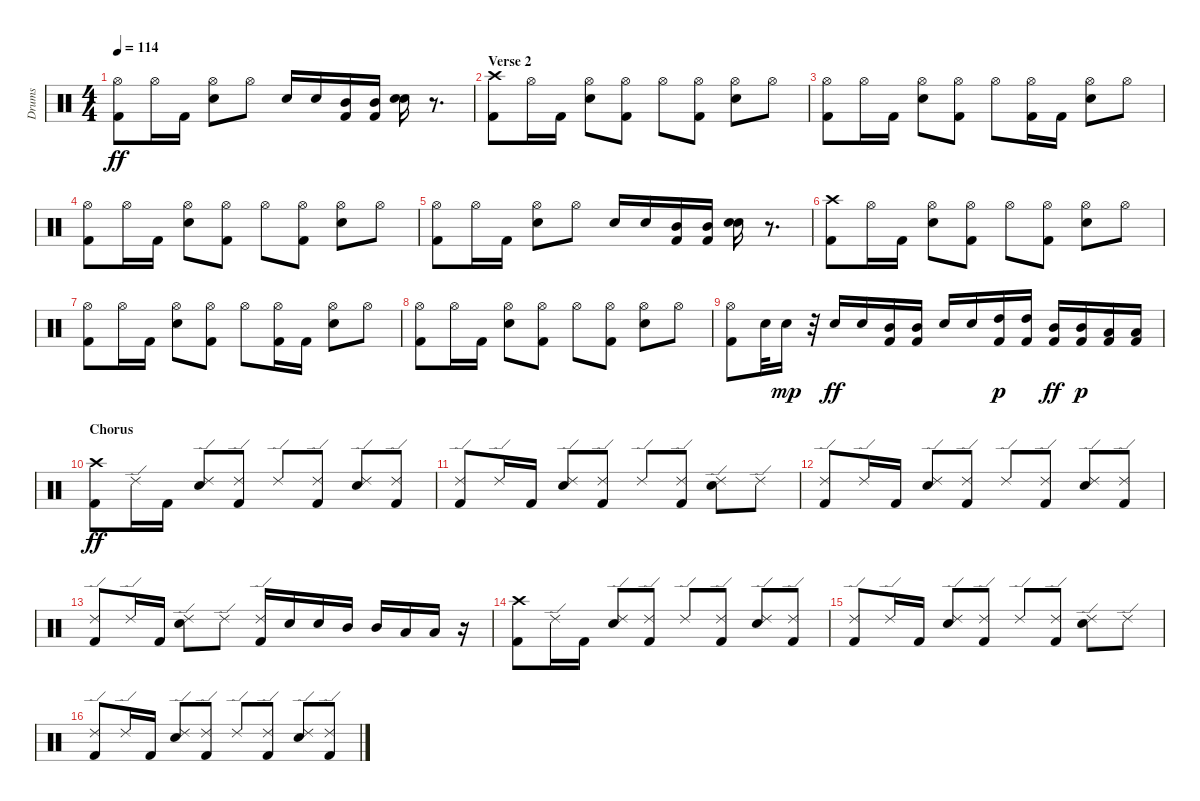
\track ("Drums               " "Drums     ") {instrument percussion}
\staff {score}
\articulation defaults
\ts (4 4)
\tempo 114
\clef neutral
\ks c
("Kick (hit) 2" "Hi-Hat (open)").8{dy ff} "Hi-Hat (open)".16 "Kick (hit) 2".16 ("Hi-Hat (open)" "Electric Snare (hit)").8 "Hi-Hat (open)".8 "Electric Snare (hit)".16 "Electric Snare (hit)".16 ("Kick (hit) 2" "Mid Tom (hit)").16 ("Kick (hit) 2" "Mid Tom (hit)").16 ("Metronome (bell)" "Electric Snare (hit)").16 r.8{d} |
\section ("" "Verse 2")
("Kick (hit) 2" "Crash high (hit)").8 "Hi-Hat (open)".16 "Kick (hit) 2".16 ("Hi-Hat (open)" "Electric Snare (hit)").8 ("Kick (hit) 2" "Hi-Hat (open)").8 "Hi-Hat (open)".8 ("Kick (hit) 2" "Hi-Hat (open)").8 ("Hi-Hat (open)" "Electric Snare (hit)").8 "Hi-Hat (open)".8 |
("Kick (hit) 2" "Hi-Hat (open)").8 "Hi-Hat (open)".16 "Kick (hit) 2".16 ("Hi-Hat (open)" "Electric Snare (hit)").8 ("Kick (hit) 2" "Hi-Hat (open)").8 "Hi-Hat (open)".8 ("Kick (hit) 2" "Hi-Hat (open)").16 "Kick (hit) 2".16 ("Hi-Hat (open)" "Electric Snare (hit)").8 "Hi-Hat (open)".8 |
("Kick (hit) 2" "Hi-Hat (open)").8 "Hi-Hat (open)".16 "Kick (hit) 2".16 ("Hi-Hat (open)" "Electric Snare (hit)").8 ("Kick (hit) 2" "Hi-Hat (open)").8 "Hi-Hat (open)".8 ("Kick (hit) 2" "Hi-Hat (open)").8 ("Hi-Hat (open)" "Electric Snare (hit)").8 "Hi-Hat (open)".8 |
("Kick (hit) 2" "Hi-Hat (open)").8 "Hi-Hat (open)".16 "Kick (hit) 2".16 ("Hi-Hat (open)" "Electric Snare (hit)").8 "Hi-Hat (open)".8 "Electric Snare (hit)".16 "Electric Snare (hit)".16 ("Kick (hit) 2" "Mid Tom (hit)").16 ("Kick (hit) 2" "Mid Tom (hit)").16 ("Metronome (bell)" "Electric Snare (hit)").16 r.8{d} |
("Kick (hit) 2" "Crash high (hit)").8 "Hi-Hat (open)".16 "Kick (hit) 2".16 ("Hi-Hat (open)" "Electric Snare (hit)").8 ("Kick (hit) 2" "Hi-Hat (open)").8 "Hi-Hat (open)".8 ("Kick (hit) 2" "Hi-Hat (open)").8 ("Hi-Hat (open)" "Electric Snare (hit)").8 "Hi-Hat (open)".8 |
("Kick (hit) 2" "Hi-Hat (open)").8 "Hi-Hat (open)".16 "Kick (hit) 2".16 ("Hi-Hat (open)" "Electric Snare (hit)").8 ("Kick (hit) 2" "Hi-Hat (open)").8 "Hi-Hat (open)".8 ("Kick (hit) 2" "Hi-Hat (open)").16 "Kick (hit) 2".16 ("Hi-Hat (open)" "Electric Snare (hit)").8 "Hi-Hat (open)".8 |
("Kick (hit) 2" "Hi-Hat (open)").8 "Hi-Hat (open)".16 "Kick (hit) 2".16 ("Hi-Hat (open)" "Electric Snare (hit)").8 ("Kick (hit) 2" "Hi-Hat (open)").8 "Hi-Hat (open)".8 ("Kick (hit) 2" "Hi-Hat (open)").8 ("Hi-Hat (open)" "Electric Snare (hit)").8 "Hi-Hat (open)".8 |
("Kick (hit) 2" "Hi-Hat (open)").8 "Electric Snare (hit)".32 "Metronome (bell)".16{dy mp} r.32 "Electric Snare (hit)".16{dy ff} "Electric Snare (hit)".16 ("Kick (hit) 2" "Mid Tom (hit)").16 ("Kick (hit) 2" "Mid Tom (hit)").16 "Electric Snare (hit)".16 "Electric Snare (hit)".16 ("High Tom (hit)" "Kick (hit) 2").16{dy p} ("High Tom (hit)" "Kick (hit) 2").16 ("Kick (hit) 2" "Mid Tom (hit)").16{dy ff} ("Mid Tom (hit)" "Kick (hit) 2").16{dy p} ("Low Tom (hit)" "Kick (hit) 2").16 ("Low Tom (hit)" "Kick (hit) 2").16 |
\section ("" "Chorus")
("Kick (hit) 2" "Crash high (hit)").8{dy ff} "Ride (edge) 2".16 "Kick (hit) 2".16 ("Electric Snare (hit)" "Ride (edge) 2").8 ("Kick (hit) 2" "Ride (edge) 2").8 "Ride (edge) 2".8 ("Kick (hit) 2" "Ride (edge) 2").8 ("Electric Snare (hit)" "Ride (edge) 2").8 ("Kick (hit) 2" "Ride (edge) 2").8 |
("Kick (hit) 2" "Ride (edge) 2").8 "Ride (edge) 2".16 "Kick (hit) 2".16 ("Electric Snare (hit)" "Ride (edge) 2").8 ("Kick (hit) 2" "Ride (edge) 2").8 "Ride (edge) 2".8 ("Kick (hit) 2" "Ride (edge) 2").8 ("Electric Snare (hit)" "Ride (edge) 2").8 "Ride (edge) 2".8 |
("Kick (hit) 2" "Ride (edge) 2").8 "Ride (edge) 2".16 "Kick (hit) 2".16 ("Electric Snare (hit)" "Ride (edge) 2").8 ("Kick (hit) 2" "Ride (edge) 2").8 "Ride (edge) 2".8 ("Kick (hit) 2" "Ride (edge) 2").8 ("Electric Snare (hit)" "Ride (edge) 2").8 ("Kick (hit) 2" "Ride (edge) 2").8 |
("Kick (hit) 2" "Ride (edge) 2").8 "Ride (edge) 2".16 "Kick (hit) 2".16 ("Electric Snare (hit)" "Ride (edge) 2").8 "Ride (edge) 2".8 ("Ride (edge) 2" "Kick (hit) 2").16 "Electric Snare (hit)".16 "Electric Snare (hit)".16 "Mid Tom (hit)".16 "Mid Tom (hit)".16 "Low Tom (hit)".16 "Low Tom (hit)".16 r.16 |
("Kick (hit) 2" "Crash high (hit)").8 "Ride (edge) 2".16 "Kick (hit) 2".16 ("Electric Snare (hit)" "Ride (edge) 2").8 ("Kick (hit) 2" "Ride (edge) 2").8 "Ride (edge) 2".8 ("Kick (hit) 2" "Ride (edge) 2").8 ("Ride (edge) 2" "Electric Snare (hit)").8 ("Kick (hit) 2" "Ride (edge) 2").8 |
("Kick (hit) 2" "Ride (edge) 2").8 "Ride (edge) 2".16 "Kick (hit) 2".16 ("Electric Snare (hit)" "Ride (edge) 2").8 ("Kick (hit) 2" "Ride (edge) 2").8 "Ride (edge) 2".8 ("Ride (edge) 2" "Kick (hit) 2").8 ("Ride (edge) 2" "Electric Snare (hit)").8 "Ride (edge) 2".8 |
("Kick (hit) 2" "Ride (edge) 2").8 "Ride (edge) 2".16 "Kick (hit) 2".16 ("Electric Snare (hit)" "Ride (edge) 2").8 ("Kick (hit) 2" "Ride (edge) 2").8 "Ride (edge) 2".8 ("Kick (hit) 2" "Ride (edge) 2").8 ("Ride (edge) 2" "Electric Snare (hit)").8 ("Kick (hit) 2" "Ride (edge) 2").8
